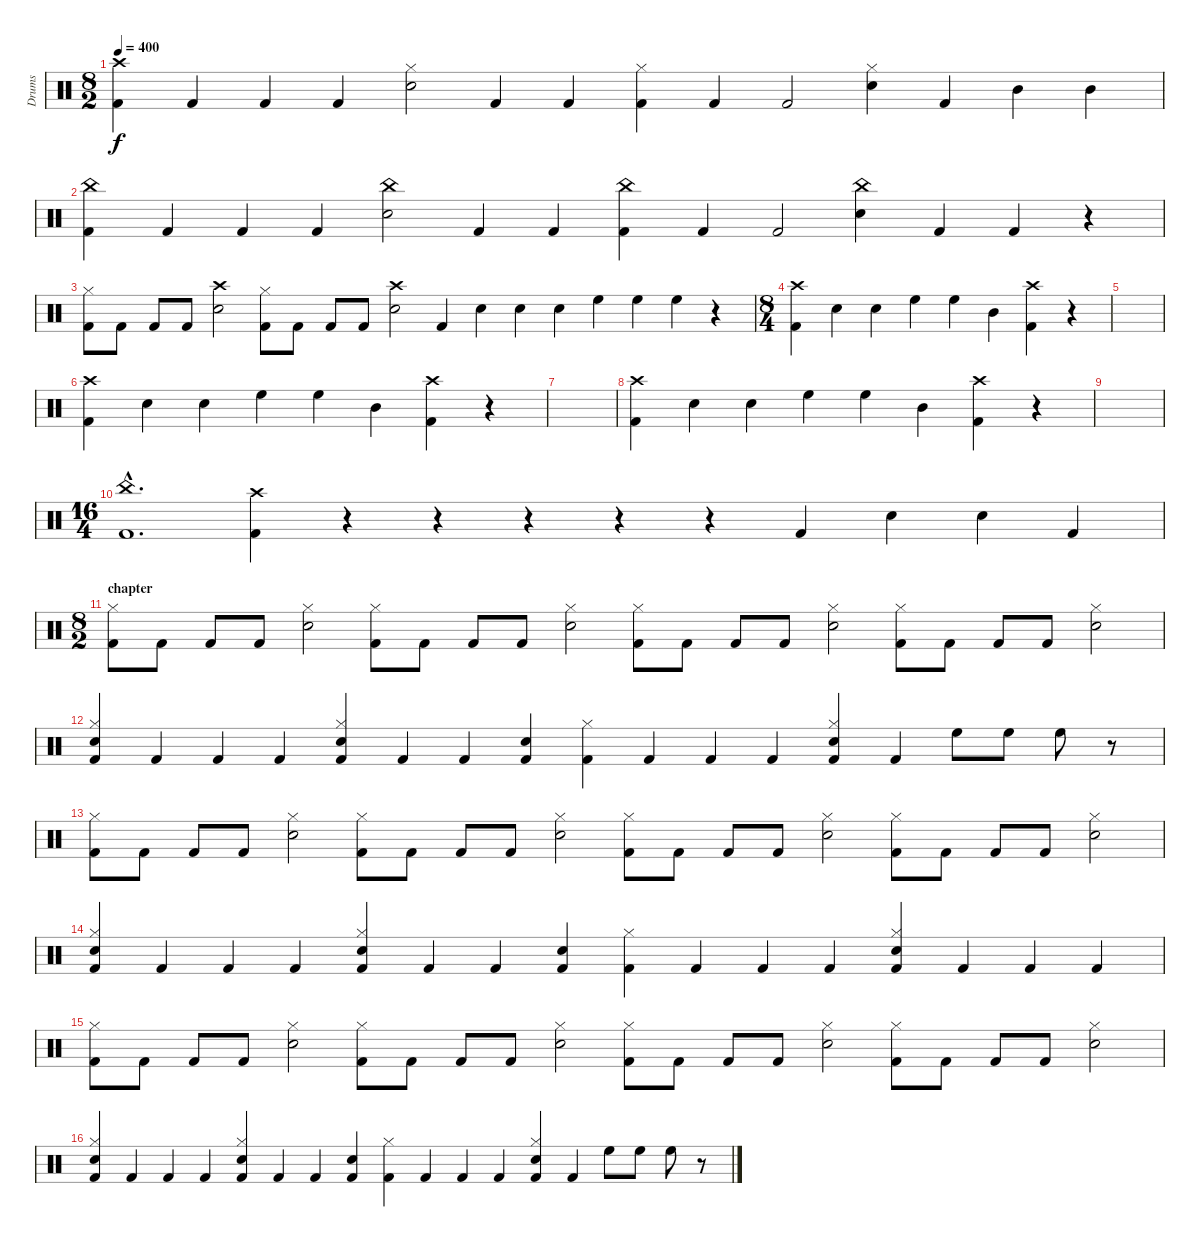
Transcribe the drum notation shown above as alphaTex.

\track ("Drums" "Drums") {instrument percussion}
\staff {score}
\articulation defaults
\ts (8 2)
\tempo 400
\clef neutral
\ks c
("Crash high (hit)" "Kick (hit) 2").4{dy f} "Kick (hit) 2".4 "Kick (hit) 2".4 "Kick (hit) 2".4 ("Hi-Hat (closed)" "Snare (hit) 2").2 "Kick (hit) 2".4 "Kick (hit) 2".4 ("Hi-Hat (closed)" "Kick (hit) 2").4 "Kick (hit) 2".4 "Kick (hit) 2".2 ("Hi-Hat (closed)" "Snare (hit) 2").4 "Kick (hit) 2".4 "Mid Tom (hit)".4 "Mid Tom (hit)".4 |
("China (hit)" "Kick (hit) 2").4 "Kick (hit) 2".4 "Kick (hit) 2".4 "Kick (hit) 2".4 ("China (hit)" "Snare (hit) 2").2 "Kick (hit) 2".4 "Kick (hit) 2".4 ("China (hit)" "Kick (hit) 2").4 "Kick (hit) 2".4 "Kick (hit) 2".2 ("China (hit)" "Snare (hit) 2").4 "Kick (hit) 2".4 "Kick (hit) 2".4 r.4 |
("Hi-Hat (closed)" "Kick (hit) 2").8 "Kick (hit) 2".8 "Kick (hit) 2".8 "Kick (hit) 2".8 ("Crash high (hit)" "Snare (hit) 2").2 ("Hi-Hat (closed)" "Kick (hit) 2").8 "Kick (hit) 2".8 "Kick (hit) 2".8 "Kick (hit) 2".8 ("Crash high (hit)" "Snare (hit) 2").2 "Kick (hit) 2".4 "Snare (hit) 2".4 "Snare (hit) 2".4 "Snare (hit) 2".4 "High Floor Tom (hit)".4 "High Floor Tom (hit)".4 "High Floor Tom (hit)".4 r.4 |
\ts (8 4)
("Crash high (hit)" "Kick (hit) 2").4 "Snare (hit) 2".4 "Snare (hit) 2".4 "High Floor Tom (hit)".4 "High Floor Tom (hit)".4 "Mid Tom (hit)".4 ("Crash high (hit)" "Kick (hit) 2").4 r.4 |
|
("Crash high (hit)" "Kick (hit) 2").4 "Snare (hit) 2".4 "Snare (hit) 2".4 "High Floor Tom (hit)".4 "High Floor Tom (hit)".4 "Mid Tom (hit)".4 ("Crash high (hit)" "Kick (hit) 2").4 r.4 |
|
("Crash high (hit)" "Kick (hit) 2").4 "Snare (hit) 2".4 "Snare (hit) 2".4 "High Floor Tom (hit)".4 "High Floor Tom (hit)".4 "Mid Tom (hit)".4 ("Crash high (hit)" "Kick (hit) 2").4 r.4 |
|
\ts (16 4)
("China (hit)"{hac} "Kick (hit) 2"{hac}).1{d} ("Crash high (hit)" "Kick (hit) 2").4 r.4 r.4 r.4 r.4 r.4 "Kick (hit) 2".4 "Snare (hit) 2".4 "Snare (hit) 2".4 "Kick (hit) 2".4 |
\ts (8 2)
\section ("" "chapter")
("Hi-Hat (closed)" "Kick (hit) 2").8 "Kick (hit) 2".8 "Kick (hit) 2".8 "Kick (hit) 2".8 ("Hi-Hat (closed)" "Snare (hit) 2").2 ("Hi-Hat (closed)" "Kick (hit) 2").8 "Kick (hit) 2".8 "Kick (hit) 2".8 "Kick (hit) 2".8 ("Hi-Hat (closed)" "Snare (hit) 2").2 ("Hi-Hat (closed)" "Kick (hit) 2").8 "Kick (hit) 2".8 "Kick (hit) 2".8 "Kick (hit) 2".8 ("Hi-Hat (closed)" "Snare (hit) 2").2 ("Hi-Hat (closed)" "Kick (hit) 2").8 "Kick (hit) 2".8 "Kick (hit) 2".8 "Kick (hit) 2".8 ("Hi-Hat (closed)" "Snare (hit) 2").2 |
("Hi-Hat (closed)" "Snare (hit) 2" "Kick (hit) 2").4 "Kick (hit) 2".4 "Kick (hit) 2".4 "Kick (hit) 2".4 ("Hi-Hat (closed)" "Snare (hit) 2" "Kick (hit) 2").4 "Kick (hit) 2".4 "Kick (hit) 2".4 ("Snare (hit) 2" "Kick (hit) 2").4 ("Hi-Hat (closed)" "Kick (hit) 2").4 "Kick (hit) 2".4 "Kick (hit) 2".4 "Kick (hit) 2".4 ("Hi-Hat (closed)" "Snare (hit) 2" "Kick (hit) 2").4 "Kick (hit) 2".4 "High Floor Tom (hit)".8 "High Floor Tom (hit)".8 "High Floor Tom (hit)".8 r.8 |
("Hi-Hat (closed)" "Kick (hit) 2").8 "Kick (hit) 2".8 "Kick (hit) 2".8 "Kick (hit) 2".8 ("Hi-Hat (closed)" "Snare (hit) 2").2 ("Hi-Hat (closed)" "Kick (hit) 2").8 "Kick (hit) 2".8 "Kick (hit) 2".8 "Kick (hit) 2".8 ("Hi-Hat (closed)" "Snare (hit) 2").2 ("Hi-Hat (closed)" "Kick (hit) 2").8 "Kick (hit) 2".8 "Kick (hit) 2".8 "Kick (hit) 2".8 ("Hi-Hat (closed)" "Snare (hit) 2").2 ("Hi-Hat (closed)" "Kick (hit) 2").8 "Kick (hit) 2".8 "Kick (hit) 2".8 "Kick (hit) 2".8 ("Hi-Hat (closed)" "Snare (hit) 2").2 |
("Hi-Hat (closed)" "Snare (hit) 2" "Kick (hit) 2").4 "Kick (hit) 2".4 "Kick (hit) 2".4 "Kick (hit) 2".4 ("Hi-Hat (closed)" "Snare (hit) 2" "Kick (hit) 2").4 "Kick (hit) 2".4 "Kick (hit) 2".4 ("Snare (hit) 2" "Kick (hit) 2").4 ("Hi-Hat (closed)" "Kick (hit) 2").4 "Kick (hit) 2".4 "Kick (hit) 2".4 "Kick (hit) 2".4 ("Hi-Hat (closed)" "Snare (hit) 2" "Kick (hit) 2").4 "Kick (hit) 2".4 "Kick (hit) 2".4 "Kick (hit) 2".4 |
("Hi-Hat (closed)" "Kick (hit) 2").8 "Kick (hit) 2".8 "Kick (hit) 2".8 "Kick (hit) 2".8 ("Hi-Hat (closed)" "Snare (hit) 2").2 ("Hi-Hat (closed)" "Kick (hit) 2").8 "Kick (hit) 2".8 "Kick (hit) 2".8 "Kick (hit) 2".8 ("Hi-Hat (closed)" "Snare (hit) 2").2 ("Hi-Hat (closed)" "Kick (hit) 2").8 "Kick (hit) 2".8 "Kick (hit) 2".8 "Kick (hit) 2".8 ("Hi-Hat (closed)" "Snare (hit) 2").2 ("Hi-Hat (closed)" "Kick (hit) 2").8 "Kick (hit) 2".8 "Kick (hit) 2".8 "Kick (hit) 2".8 ("Hi-Hat (closed)" "Snare (hit) 2").2 |
("Hi-Hat (closed)" "Snare (hit) 2" "Kick (hit) 2").4 "Kick (hit) 2".4 "Kick (hit) 2".4 "Kick (hit) 2".4 ("Hi-Hat (closed)" "Snare (hit) 2" "Kick (hit) 2").4 "Kick (hit) 2".4 "Kick (hit) 2".4 ("Snare (hit) 2" "Kick (hit) 2").4 ("Hi-Hat (closed)" "Kick (hit) 2").4 "Kick (hit) 2".4 "Kick (hit) 2".4 "Kick (hit) 2".4 ("Hi-Hat (closed)" "Snare (hit) 2" "Kick (hit) 2").4 "Kick (hit) 2".4 "High Floor Tom (hit)".8 "High Floor Tom (hit)".8 "High Floor Tom (hit)".8 r.8
